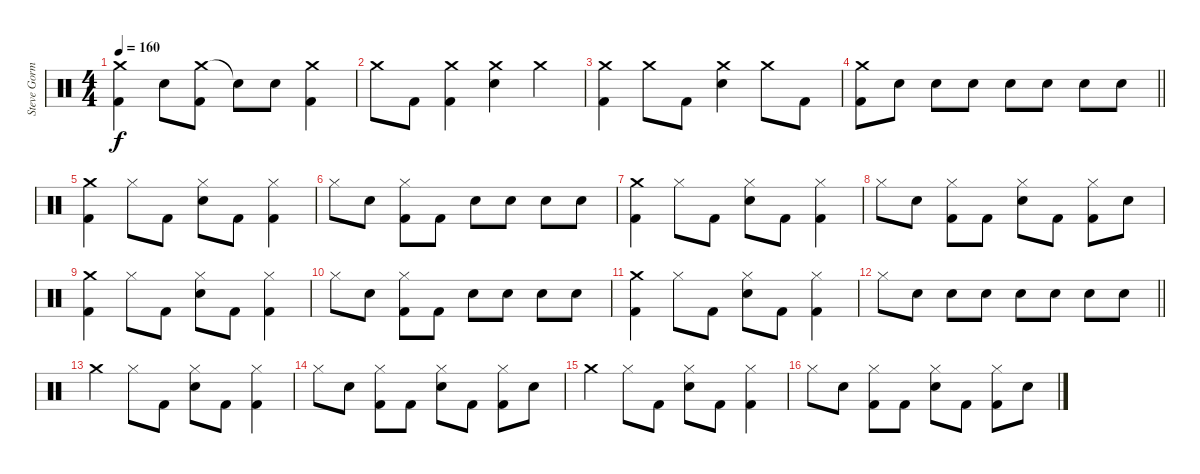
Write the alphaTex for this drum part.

\track ("Steve Gorman " "Steve Gorm") {instrument percussion}
\staff {score}
\articulation defaults
\ts (4 4)
\tempo 160
\clef neutral
\ks c
("Crash medium (hit)" "Kick (hit) 2").4{dy f} "Snare (hit) 2".8 ("Crash medium (hit)" "Kick (hit) 2").8 "Snare (hit)"{t}.8 "Snare (hit) 2".8 ("Crash medium (hit)" "Kick (hit) 2").4 |
"Crash medium (hit)".8 "Kick (hit) 2".8 ("Kick (hit) 2" "Crash medium (hit)").4 ("Crash medium (hit)" "Snare (hit) 2").4 "Crash medium (hit)".4 |
("Crash medium (hit)" "Kick (hit) 2").4 "Crash medium (hit)".8 "Kick (hit) 2".8 ("Crash medium (hit)" "Snare (hit) 2").4 "Crash medium (hit)".8 "Kick (hit) 2".8 |
\barLineRight lightlight
("Crash medium (hit)" "Kick (hit) 2").8 "Snare (hit) 2".8 "Snare (hit) 2".8 "Snare (hit) 2".8 "Snare (hit) 2".8 "Snare (hit) 2".8 "Snare (hit) 2".8 "Snare (hit) 2".8 |
("Crash medium (hit)" "Kick (hit) 2").4 "Hi-Hat (closed)".8 "Kick (hit) 2".8 ("Hi-Hat (closed)" "Snare (hit) 2").8 "Kick (hit) 2".8 ("Hi-Hat (closed)" "Kick (hit) 2").4 |
"Hi-Hat (closed)".8 "Snare (hit) 2".8 ("Hi-Hat (closed)" "Kick (hit) 2").8 "Kick (hit) 2".8 "Snare (hit) 2".8 "Snare (hit) 2".8 "Snare (hit) 2".8 "Snare (hit) 2".8 |
("Crash medium (hit)" "Kick (hit) 2").4 "Hi-Hat (closed)".8 "Kick (hit) 2".8 ("Hi-Hat (closed)" "Snare (hit) 2").8 "Kick (hit) 2".8 ("Hi-Hat (closed)" "Kick (hit) 2").4 |
"Hi-Hat (closed)".8 "Snare (hit) 2".8 ("Hi-Hat (closed)" "Kick (hit) 2").8 "Kick (hit) 2".8 ("Hi-Hat (closed)" "Snare (hit) 2").8 "Kick (hit) 2".8 ("Hi-Hat (closed)" "Kick (hit) 2").8 "Snare (hit) 2".8 |
("Crash medium (hit)" "Kick (hit) 2").4 "Hi-Hat (closed)".8 "Kick (hit) 2".8 ("Snare (hit) 2" "Hi-Hat (closed)").8 "Kick (hit) 2".8 ("Hi-Hat (closed)" "Kick (hit) 2").4 |
"Hi-Hat (closed)".8 "Snare (hit) 2".8 ("Hi-Hat (closed)" "Kick (hit) 2").8 "Kick (hit) 2".8 "Snare (hit) 2".8 "Snare (hit) 2".8 "Snare (hit) 2".8 "Snare (hit) 2".8 |
("Crash medium (hit)" "Kick (hit) 2").4 "Hi-Hat (closed)".8 "Kick (hit) 2".8 ("Hi-Hat (closed)" "Snare (hit) 2").8 "Kick (hit) 2".8 ("Hi-Hat (closed)" "Kick (hit) 2").4 |
\barLineRight lightlight "Hi-Hat (closed)".8 "Snare (hit) 2".8 "Snare (hit) 2".8 "Snare (hit) 2".8 "Snare (hit) 2".8 "Snare (hit) 2".8 "Snare (hit) 2".8 "Snare (hit) 2".8
|
"Crash medium (hit)".4 "Hi-Hat (closed)".8 "Kick (hit) 2".8 ("Hi-Hat (closed)" "Snare (hit) 2").8 "Kick (hit) 2".8 ("Hi-Hat (closed)" "Kick (hit) 2").4 |
"Hi-Hat (closed)".8 "Snare (hit) 2".8 ("Hi-Hat (closed)" "Kick (hit) 2").8 "Kick (hit) 2".8 ("Hi-Hat (closed)" "Snare (hit) 2").8 "Kick (hit) 2".8 ("Hi-Hat (closed)" "Kick (hit) 2").8 "Snare (hit) 2".8 |
"Crash medium (hit)".4 "Hi-Hat (closed)".8 "Kick (hit) 2".8 ("Hi-Hat (closed)" "Snare (hit) 2").8 "Kick (hit) 2".8 ("Hi-Hat (closed)" "Kick (hit) 2").4 |
"Hi-Hat (closed)".8 "Snare (hit) 2".8 ("Hi-Hat (closed)" "Kick (hit) 2").8 "Kick (hit) 2".8 ("Hi-Hat (closed)" "Snare (hit) 2").8 "Kick (hit) 2".8 ("Hi-Hat (closed)" "Kick (hit) 2").8 "Snare (hit) 2".8
